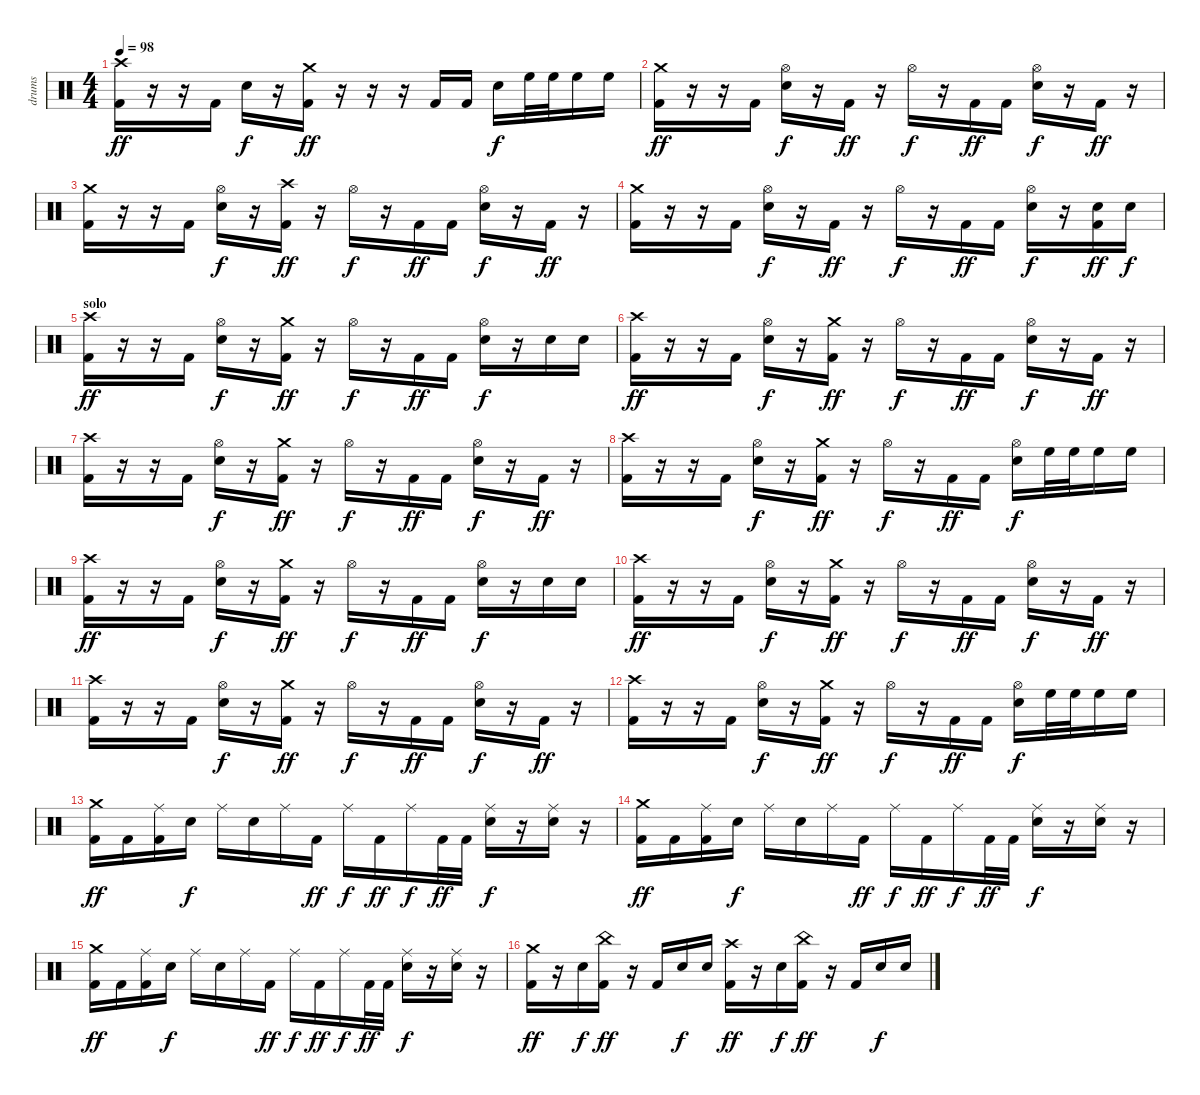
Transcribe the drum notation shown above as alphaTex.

\track ("drums" "drums") {instrument percussion}
\staff {score}
\articulation defaults
\ts (4 4)
\tempo 98
\clef neutral
\ks c
("Crash high (hit)" "Kick (hit) 2").16{dy ff} r.16 r.16 "Kick (hit) 2".16 "Electric Snare (hit)".16{dy f} r.16 ("Crash medium (hit)" "Kick (hit) 2").16{dy ff} r.16 r.16 r.16 "Kick (hit) 2".16 "Kick (hit) 2".16 "Electric Snare (hit)".16{dy f} "High Floor Tom (hit)".32 "High Floor Tom (hit)".32 "High Floor Tom (hit)".16 "High Floor Tom (hit)".16 |
("Crash medium (hit)" "Kick (hit) 2").16{dy ff} r.16 r.16 "Kick (hit) 2".16 ("Hi-Hat (open)" "Electric Snare (hit)").16{dy f} r.16 "Kick (hit) 2".16{dy ff} r.16 "Hi-Hat (open)".16{dy f} r.16 "Kick (hit) 2".16{dy ff} "Kick (hit) 2".16 ("Hi-Hat (open)" "Electric Snare (hit)").16{dy f} r.16 "Kick (hit) 2".16{dy ff} r.16 |
("Crash medium (hit)" "Kick (hit) 2").16 r.16 r.16 "Kick (hit) 2".16 ("Hi-Hat (open)" "Electric Snare (hit)").16{dy f} r.16 ("Crash high (hit)" "Kick (hit) 2").16{dy ff} r.16 "Hi-Hat (open)".16{dy f} r.16 "Kick (hit) 2".16{dy ff} "Kick (hit) 2".16 ("Hi-Hat (open)" "Electric Snare (hit)").16{dy f} r.16 "Kick (hit) 2".16{dy ff} r.16 |
("Crash medium (hit)" "Kick (hit) 2").16 r.16 r.16 "Kick (hit) 2".16 ("Hi-Hat (open)" "Electric Snare (hit)").16{dy f} r.16 "Kick (hit) 2".16{dy ff} r.16 "Hi-Hat (open)".16{dy f} r.16 "Kick (hit) 2".16{dy ff} "Kick (hit) 2".16 ("Hi-Hat (open)" "Electric Snare (hit)").16{dy f} r.16 ("Electric Snare (hit)" "Kick (hit) 2").16{dy ff} "Electric Snare (hit)".16{dy f} |
\section ("" "solo")
("Crash high (hit)" "Kick (hit) 2").16{dy ff} r.16 r.16 "Kick (hit) 2".16 ("Hi-Hat (open)" "Electric Snare (hit)").16{dy f} r.16 ("Crash medium (hit)" "Kick (hit) 2").16{dy ff} r.16 "Hi-Hat (open)".16{dy f} r.16 "Kick (hit) 2".16{dy ff} "Kick (hit) 2".16 ("Hi-Hat (open)" "Electric Snare (hit)").16{dy f} r.16 "Electric Snare (hit)".16 "Electric Snare (hit)".16 |
("Crash high (hit)" "Kick (hit) 2").16{dy ff} r.16 r.16 "Kick (hit) 2".16 ("Hi-Hat (open)" "Electric Snare (hit)").16{dy f} r.16 ("Crash medium (hit)" "Kick (hit) 2").16{dy ff} r.16 "Hi-Hat (open)".16{dy f} r.16 "Kick (hit) 2".16{dy ff} "Kick (hit) 2".16 ("Hi-Hat (open)" "Electric Snare (hit)").16{dy f} r.16 "Kick (hit) 2".16{dy ff} r.16 |
("Crash high (hit)" "Kick (hit) 2").16 r.16 r.16 "Kick (hit) 2".16 ("Hi-Hat (open)" "Electric Snare (hit)").16{dy f} r.16 ("Crash medium (hit)" "Kick (hit) 2").16{dy ff} r.16 "Hi-Hat (open)".16{dy f} r.16 "Kick (hit) 2".16{dy ff} "Kick (hit) 2".16 ("Hi-Hat (open)" "Electric Snare (hit)").16{dy f} r.16 "Kick (hit) 2".16{dy ff} r.16 |
("Crash high (hit)" "Kick (hit) 2").16 r.16 r.16 "Kick (hit) 2".16 ("Hi-Hat (open)" "Electric Snare (hit)").16{dy f} r.16 ("Crash medium (hit)" "Kick (hit) 2").16{dy ff} r.16 "Hi-Hat (open)".16{dy f} r.16 "Kick (hit) 2".16{dy ff} "Kick (hit) 2".16 ("Hi-Hat (open)" "Electric Snare (hit)").16{dy f} "High Floor Tom (hit)".32 "High Floor Tom (hit)".32 "High Floor Tom (hit)".16 "High Floor Tom (hit)".16 |
("Crash high (hit)" "Kick (hit) 2").16{dy ff} r.16 r.16 "Kick (hit) 2".16 ("Hi-Hat (open)" "Electric Snare (hit)").16{dy f} r.16 ("Crash medium (hit)" "Kick (hit) 2").16{dy ff} r.16 "Hi-Hat (open)".16{dy f} r.16 "Kick (hit) 2".16{dy ff} "Kick (hit) 2".16 ("Hi-Hat (open)" "Electric Snare (hit)").16{dy f} r.16 "Electric Snare (hit)".16 "Electric Snare (hit)".16 |
("Crash high (hit)" "Kick (hit) 2").16{dy ff} r.16 r.16 "Kick (hit) 2".16 ("Hi-Hat (open)" "Electric Snare (hit)").16{dy f} r.16 ("Crash medium (hit)" "Kick (hit) 2").16{dy ff} r.16 "Hi-Hat (open)".16{dy f} r.16 "Kick (hit) 2".16{dy ff} "Kick (hit) 2".16 ("Hi-Hat (open)" "Electric Snare (hit)").16{dy f} r.16 "Kick (hit) 2".16{dy ff} r.16 |
("Crash high (hit)" "Kick (hit) 2").16 r.16 r.16 "Kick (hit) 2".16 ("Hi-Hat (open)" "Electric Snare (hit)").16{dy f} r.16 ("Crash medium (hit)" "Kick (hit) 2").16{dy ff} r.16 "Hi-Hat (open)".16{dy f} r.16 "Kick (hit) 2".16{dy ff} "Kick (hit) 2".16 ("Hi-Hat (open)" "Electric Snare (hit)").16{dy f} r.16 "Kick (hit) 2".16{dy ff} r.16 |
("Crash high (hit)" "Kick (hit) 2").16 r.16 r.16 "Kick (hit) 2".16 ("Hi-Hat (open)" "Electric Snare (hit)").16{dy f} r.16 ("Crash medium (hit)" "Kick (hit) 2").16{dy ff} r.16 "Hi-Hat (open)".16{dy f} r.16 "Kick (hit) 2".16{dy ff} "Kick (hit) 2".16 ("Hi-Hat (open)" "Electric Snare (hit)").16{dy f} "High Floor Tom (hit)".32 "High Floor Tom (hit)".32 "High Floor Tom (hit)".16 "High Floor Tom (hit)".16 |
("Crash medium (hit)" "Kick (hit) 2").16{dy ff} "Kick (hit) 2".16 ("Ride (middle)" "Kick (hit) 2").16 "Electric Snare (hit)".16{dy f} "Ride (middle)".16 "Electric Snare (hit)".16 "Ride (middle)".16 "Kick (hit) 2".16{dy ff} "Ride (middle)".16{dy f} "Kick (hit) 2".16{dy ff} "Ride (middle)".16{dy f} "Kick (hit) 2".32{dy ff} "Kick (hit) 2".32 ("Ride (middle)" "Electric Snare (hit)").16{dy f} r.16 ("Ride (middle)" "Electric Snare (hit)").16 r.16 |
("Crash medium (hit)" "Kick (hit) 2").16{dy ff} "Kick (hit) 2".16 ("Ride (middle)" "Kick (hit) 2").16 "Electric Snare (hit)".16{dy f} "Ride (middle)".16 "Electric Snare (hit)".16 "Ride (middle)".16 "Kick (hit) 2".16{dy ff} "Ride (middle)".16{dy f} "Kick (hit) 2".16{dy ff} "Ride (middle)".16{dy f} "Kick (hit) 2".32{dy ff} "Kick (hit) 2".32 ("Ride (middle)" "Electric Snare (hit)").16{dy f} r.16 ("Ride (middle)" "Electric Snare (hit)").16 r.16 |
("Crash medium (hit)" "Kick (hit) 2").16{dy ff} "Kick (hit) 2".16 ("Ride (middle)" "Kick (hit) 2").16 "Electric Snare (hit)".16{dy f} "Ride (middle)".16 "Electric Snare (hit)".16 "Ride (middle)".16 "Kick (hit) 2".16{dy ff} "Ride (middle)".16{dy f} "Kick (hit) 2".16{dy ff} "Ride (middle)".16{dy f} "Kick (hit) 2".32{dy ff} "Kick (hit) 2".32 ("Ride (middle)" "Electric Snare (hit)").16{dy f} r.16 ("Ride (middle)" "Electric Snare (hit)").16 r.16 |
("Crash medium (hit)" "Kick (hit) 2").16{dy ff} r.16 "Electric Snare (hit)".16{dy f} ("China (hit)" "Kick (hit) 2").16{dy ff} r.16 "Kick (hit) 2".16 "Electric Snare (hit)".16{dy f} "Electric Snare (hit)".16 ("Crash high (hit)" "Kick (hit) 2").16{dy ff} r.16 "Electric Snare (hit)".16{dy f} ("China (hit)" "Kick (hit) 2").16{dy ff} r.16 "Kick (hit) 2".16 "Electric Snare (hit)".16{dy f} "Electric Snare (hit)".16
